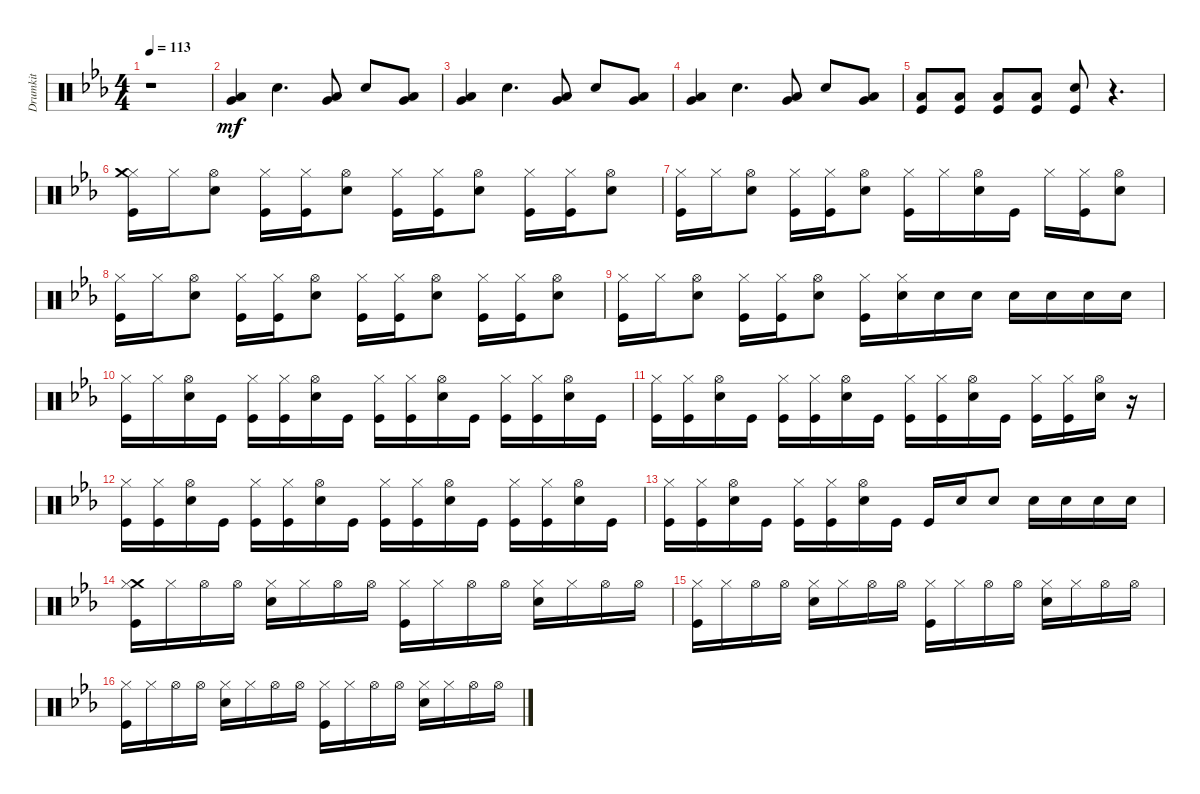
\track ("Drumkit" "Drumkit") {instrument percussion}
\staff {score}
\articulation defaults
\ts (4 4)
\tempo 113
\clef neutral
\ks eb
r.1{dy mf} |
("Low Floor Tom (hit)" "Very Low Tom (hit)").4 "Snare (hit) 2".4{d} ("Low Floor Tom (hit)" "Very Low Tom (hit)").8 "Snare (hit) 2".8 ("Low Floor Tom (hit)" "Very Low Tom (hit)").8 |
("Very Low Tom (hit)" "Low Floor Tom (hit)").4 "Snare (hit) 2".4{d} ("Very Low Tom (hit)" "Low Floor Tom (hit)").8 "Snare (hit) 2".8 ("Very Low Tom (hit)" "Low Floor Tom (hit)").8 |
("Very Low Tom (hit)" "Low Floor Tom (hit)").4 "Snare (hit) 2".4{d} ("Very Low Tom (hit)" "Low Floor Tom (hit)").8 "Snare (hit) 2".8 ("Very Low Tom (hit)" "Low Floor Tom (hit)").8 |
("Kick (hit)" "Low Floor Tom (hit)").8 ("Kick (hit)" "Low Floor Tom (hit)").8 ("Kick (hit)" "Low Floor Tom (hit)").8 ("Kick (hit)" "Low Floor Tom (hit)").8 ("Snare (hit) 2" "Kick (hit)").8 r.4{d} |
("Hi-Hat (closed)" "Kick (hit)" "Crash medium (hit)").16 "Hi-Hat (closed)".16 ("Hi-Hat (open)" "Snare (hit) 2").8 ("Hi-Hat (closed)" "Kick (hit)").16 ("Hi-Hat (closed)" "Kick (hit)").16 ("Hi-Hat (open)" "Snare (hit) 2").8 ("Hi-Hat (closed)" "Kick (hit)").16 ("Hi-Hat (closed)" "Kick (hit)").16 ("Hi-Hat (open)" "Snare (hit) 2").8 ("Hi-Hat (closed)" "Kick (hit)").16 ("Hi-Hat (closed)" "Kick (hit)").16 ("Hi-Hat (open)" "Snare (hit) 2").8 |
("Hi-Hat (closed)" "Kick (hit)").16 "Hi-Hat (closed)".16 ("Hi-Hat (open)" "Snare (hit) 2").8 ("Hi-Hat (closed)" "Kick (hit)").16 ("Hi-Hat (closed)" "Kick (hit)").16 ("Hi-Hat (open)" "Snare (hit) 2").8 ("Hi-Hat (closed)" "Kick (hit)").16 "Hi-Hat (closed)".16 ("Hi-Hat (open)" "Snare (hit) 2").16 "Kick (hit)".16 "Hi-Hat (closed)".16 ("Hi-Hat (closed)" "Kick (hit)").16 ("Snare (hit) 2" "Hi-Hat (open)").8 |
("Hi-Hat (closed)" "Kick (hit)").16 "Hi-Hat (closed)".16 ("Hi-Hat (open)" "Snare (hit) 2").8 ("Hi-Hat (closed)" "Kick (hit)").16 ("Hi-Hat (closed)" "Kick (hit)").16 ("Hi-Hat (open)" "Snare (hit) 2").8 ("Hi-Hat (closed)" "Kick (hit)").16 ("Hi-Hat (closed)" "Kick (hit)").16 ("Hi-Hat (open)" "Snare (hit) 2").8 ("Hi-Hat (closed)" "Kick (hit)").16 ("Hi-Hat (closed)" "Kick (hit)").16 ("Hi-Hat (open)" "Snare (hit) 2").8 |
("Hi-Hat (closed)" "Kick (hit)").16 "Hi-Hat (closed)".16 ("Hi-Hat (open)" "Snare (hit) 2").8 ("Hi-Hat (closed)" "Kick (hit)").16 ("Hi-Hat (closed)" "Kick (hit)").16 ("Hi-Hat (open)" "Snare (hit) 2").8 ("Hi-Hat (closed)" "Kick (hit)").16 ("Hi-Hat (closed)" "Snare (hit) 2").16 "Snare (hit) 2".16 "Snare (hit) 2".16 "Snare (hit) 2".16 "Snare (hit) 2".16 "Snare (hit) 2".16 "Snare (hit) 2".16 |
("Hi-Hat (closed)" "Kick (hit)").16 "Hi-Hat (closed)".16 ("Hi-Hat (open)" "Snare (hit) 2").16 "Kick (hit)".16 ("Kick (hit)" "Hi-Hat (closed)").16 ("Kick (hit)" "Hi-Hat (closed)").16 ("Snare (hit) 2" "Hi-Hat (open)").16 "Kick (hit)".16 ("Kick (hit)" "Hi-Hat (closed)").16 ("Kick (hit)" "Hi-Hat (closed)").16 ("Snare (hit) 2" "Hi-Hat (open)").16 "Kick (hit)".16 ("Kick (hit)" "Hi-Hat (closed)").16 ("Kick (hit)" "Hi-Hat (closed)").16 ("Snare (hit) 2" "Hi-Hat (open)").16 "Kick (hit)".16 |
("Kick (hit)" "Hi-Hat (closed)").16 ("Kick (hit)" "Hi-Hat (closed)").16 ("Snare (hit) 2" "Hi-Hat (open)").16 "Kick (hit)".16 ("Kick (hit)" "Hi-Hat (closed)").16 ("Kick (hit)" "Hi-Hat (closed)").16 ("Snare (hit) 2" "Hi-Hat (open)").16 "Kick (hit)".16 ("Kick (hit)" "Hi-Hat (closed)").16 ("Kick (hit)" "Hi-Hat (closed)").16 ("Snare (hit) 2" "Hi-Hat (open)").16 "Kick (hit)".16 ("Kick (hit)" "Hi-Hat (closed)").16 ("Kick (hit)" "Hi-Hat (closed)").16 ("Snare (hit) 2" "Hi-Hat (open)").16 r.16 |
("Kick (hit)" "Hi-Hat (closed)").16 ("Kick (hit)" "Hi-Hat (closed)").16 ("Snare (hit) 2" "Hi-Hat (open)").16 "Kick (hit)".16 ("Hi-Hat (closed)" "Kick (hit)").16 ("Hi-Hat (closed)" "Kick (hit)").16 ("Hi-Hat (open)" "Snare (hit) 2").16 "Kick (hit)".16 ("Kick (hit)" "Hi-Hat (closed)").16 ("Hi-Hat (closed)" "Kick (hit)").16 ("Hi-Hat (open)" "Snare (hit) 2").16 "Kick (hit)".16 ("Hi-Hat (closed)" "Kick (hit)").16 ("Kick (hit)" "Hi-Hat (closed)").16 ("Snare (hit) 2" "Hi-Hat (open)").16 "Kick (hit)".16 |
("Kick (hit)" "Hi-Hat (closed)").16 ("Kick (hit)" "Hi-Hat (closed)").16 ("Snare (hit) 2" "Hi-Hat (open)").16 "Kick (hit)".16 ("Kick (hit)" "Hi-Hat (closed)").16 ("Kick (hit)" "Hi-Hat (closed)").16 ("Snare (hit) 2" "Hi-Hat (open)").16 "Kick (hit)".16 "Kick (hit)".16 "Snare (hit) 2".16 "Snare (hit) 2".8 "Snare (hit) 2".16 "Snare (hit) 2".16 "Snare (hit) 2".16 "Snare (hit) 2".16 |
("Crash medium (hit)" "Hi-Hat (closed)" "Kick (hit)").16 "Hi-Hat (closed)".16 "Hi-Hat (open)".16 "Hi-Hat (open)".16 ("Hi-Hat (closed)" "Snare (hit) 2").16 "Hi-Hat (closed)".16 "Hi-Hat (open)".16 "Hi-Hat (open)".16 ("Hi-Hat (closed)" "Kick (hit)").16 "Hi-Hat (closed)".16 "Hi-Hat (open)".16 "Hi-Hat (open)".16 ("Hi-Hat (closed)" "Snare (hit) 2").16 "Hi-Hat (closed)".16 "Hi-Hat (open)".16 "Hi-Hat (open)".16 |
("Hi-Hat (closed)" "Kick (hit)").16 "Hi-Hat (closed)".16 "Hi-Hat (open)".16 "Hi-Hat (open)".16 ("Hi-Hat (closed)" "Snare (hit) 2").16 "Hi-Hat (closed)".16 "Hi-Hat (open)".16 "Hi-Hat (open)".16 ("Hi-Hat (closed)" "Kick (hit)").16 "Hi-Hat (closed)".16 "Hi-Hat (open)".16 "Hi-Hat (open)".16 ("Hi-Hat (closed)" "Snare (hit) 2").16 "Hi-Hat (closed)".16 "Hi-Hat (open)".16 "Hi-Hat (open)".16 |
("Hi-Hat (closed)" "Kick (hit)").16 "Hi-Hat (closed)".16 "Hi-Hat (open)".16 "Hi-Hat (open)".16 ("Hi-Hat (closed)" "Snare (hit) 2").16 "Hi-Hat (closed)".16 "Hi-Hat (open)".16 "Hi-Hat (open)".16 ("Hi-Hat (closed)" "Kick (hit)").16 "Hi-Hat (closed)".16 "Hi-Hat (open)".16 "Hi-Hat (open)".16 ("Hi-Hat (closed)" "Snare (hit) 2").16 "Hi-Hat (closed)".16 "Hi-Hat (open)".16 "Hi-Hat (open)".16
